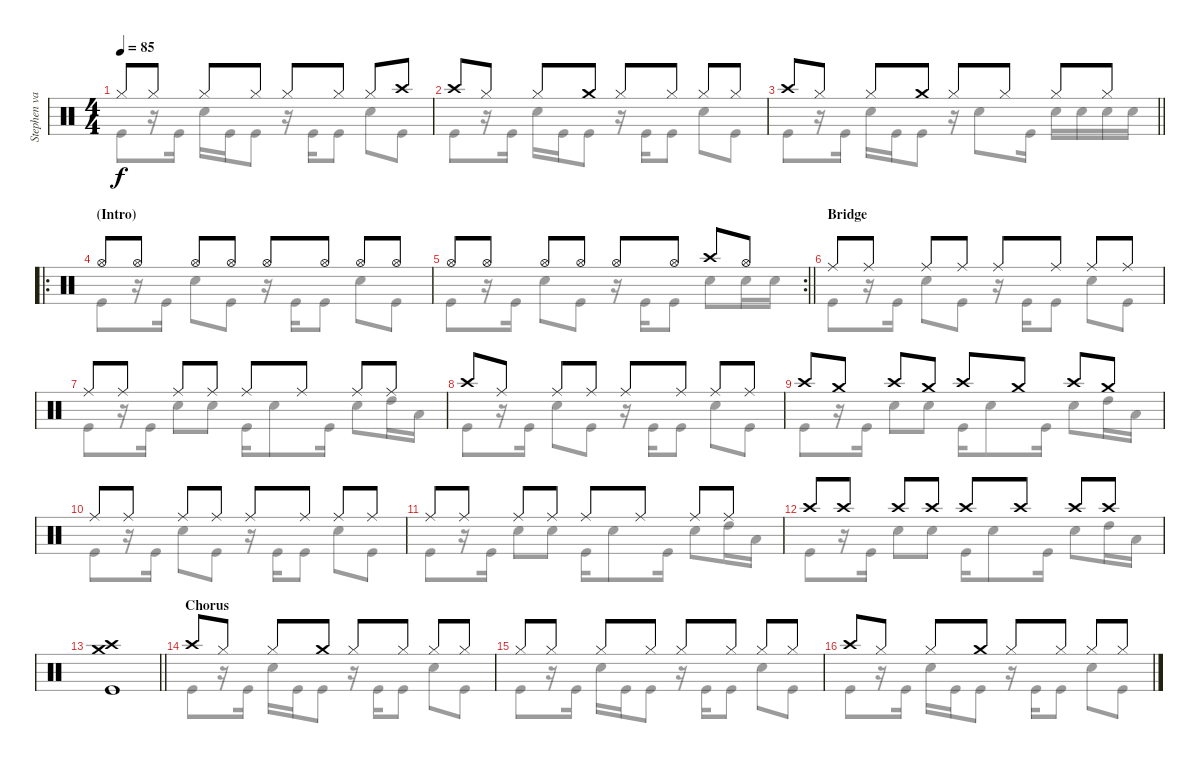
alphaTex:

\track ("Stephen van Haestregt - Drums" "Stephen va") {instrument percussion}
\staff {score}
\articulation defaults
\voice
\ts (4 4)
\tempo 85
\clef neutral
\ks c "Hi-Hat (closed)".8{dy f} "Hi-Hat (closed)".8 "Hi-Hat (closed)".8 "Hi-Hat (closed)".8 "Hi-Hat (closed)".8 "Hi-Hat (closed)".8 "Hi-Hat (closed)".8 "Crash high (hit)".8
|
"Crash high (hit)".8 "Hi-Hat (closed)".8 "Hi-Hat (closed)".8 "Crash medium (hit)".8 "Hi-Hat (closed)".8 "Hi-Hat (closed)".8 "Hi-Hat (closed)".8 "Hi-Hat (closed)".8 |
\barLineRight lightlight "Crash high (hit)".8 "Hi-Hat (closed)".8 "Hi-Hat (closed)".8 "Crash medium (hit)".8 "Hi-Hat (closed)".8 "Hi-Hat (closed)".8 "Hi-Hat (closed)".8 "Hi-Hat (closed)".8
|
\ro
\section ("" "(Intro)")
"Hi-Hat (open)".8 "Hi-Hat (open)".8 "Hi-Hat (open)".8 "Hi-Hat (open)".8 "Hi-Hat (open)".8 "Hi-Hat (open)".8 "Hi-Hat (open)".8 "Hi-Hat (open)".8 |
\rc 2
\barLineRight lightlight "Hi-Hat (open)".8 "Hi-Hat (open)".8 "Hi-Hat (open)".8 "Hi-Hat (open)".8 "Hi-Hat (open)".8 "Hi-Hat (open)".8 "Crash high (hit)".8 "Hi-Hat (open)".8
|
\section ("" "Bridge")
"Ride (middle)".8 "Ride (middle)".8 "Ride (middle)".8 "Ride (middle)".8 "Ride (middle)".8 "Ride (middle)".8 "Ride (middle)".8 "Ride (middle)".8 |
"Ride (middle)".8 "Ride (middle)".8 "Ride (middle)".8 "Ride (middle)".8 "Ride (middle)".8 "Ride (middle)".8 "Ride (middle)".8 "Ride (middle)".8 |
"Crash high (hit)".8 "Ride (middle)".8 "Ride (middle)".8 "Ride (middle)".8 "Ride (middle)".8 "Ride (middle)".8 "Ride (middle)".8 "Ride (middle)".8 |
"Crash high (hit)".8 "Crash medium (hit)".8 "Crash high (hit)".8 "Crash medium (hit)".8 "Crash high (hit)".8 "Crash medium (hit)".8 "Crash high (hit)".8 "Crash medium (hit)".8 |
"Ride (middle)".8 "Ride (middle)".8 "Ride (middle)".8 "Ride (middle)".8 "Ride (middle)".8 "Ride (middle)".8 "Ride (middle)".8 "Ride (middle)".8 |
"Ride (middle)".8 "Ride (middle)".8 "Ride (middle)".8 "Ride (middle)".8 "Ride (middle)".8 "Ride (middle)".8 "Ride (middle)".8 "Ride (middle)".8 |
"Crash high (hit)".8 "Crash high (hit)".8 "Crash high (hit)".8 "Crash high (hit)".8 "Crash high (hit)".8 "Crash high (hit)".8 "Crash high (hit)".8 "Crash high (hit)".8 |
\barLineRight lightlight
("Crash medium (hit)" "Crash high (hit)" "Kick (hit)").1 |
\section ("" "Chorus")
"Crash high (hit)".8 "Hi-Hat (closed)".8 "Hi-Hat (closed)".8 "Crash medium (hit)".8 "Hi-Hat (closed)".8 "Hi-Hat (closed)".8 "Hi-Hat (closed)".8 "Hi-Hat (closed)".8 |
"Hi-Hat (closed)".8 "Hi-Hat (closed)".8 "Hi-Hat (closed)".8 "Hi-Hat (closed)".8 "Hi-Hat (closed)".8 "Hi-Hat (closed)".8 "Hi-Hat (closed)".8 "Hi-Hat (closed)".8 |
"Crash high (hit)".8 "Hi-Hat (closed)".8 "Hi-Hat (closed)".8 "Crash medium (hit)".8 "Hi-Hat (closed)".8 "Hi-Hat (closed)".8 "Hi-Hat (closed)".8 "Hi-Hat (closed)".8
\voice
\clef neutral
\ottava regular
\simile none
\ks c "Kick (hit)".8{dy f}
r.16 "Kick (hit)".16 "Snare (hit) 2".16 "Kick (hit)".16 "Kick (hit)".8 r.16 "Kick (hit)".16 "Kick (hit)".8 "Snare (hit) 2".8 "Kick (hit)".8 |
"Kick (hit)".8 r.16 "Kick (hit)".16 "Snare (hit) 2".16 "Kick (hit)".16 "Kick (hit)".8 r.16 "Kick (hit)".16 "Kick (hit)".8 "Snare (hit) 2".8 "Kick (hit)".8 |
\barLineRight lightlight "Kick (hit)".8
r.16 "Kick (hit)".16 "Snare (hit) 2".16 "Kick (hit)".16 "Kick (hit)".8 r.16 "Snare (hit) 2".8 "Kick (hit)".16 "Snare (hit) 2".16 "Snare (hit) 2".16 "Snare (hit) 2".16 "Snare (hit) 2".16 |
"Kick (hit)".8 r.16 "Kick (hit)".16 "Snare (hit) 2".8 "Kick (hit)".8 r.16 "Kick (hit)".16 "Kick (hit)".8 "Snare (hit) 2".8 "Kick (hit)".8 |
\barLineRight lightlight "Kick (hit)".8
r.16 "Kick (hit)".16 "Snare (hit) 2".8 "Kick (hit)".8 r.16 "Kick (hit)".16 "Kick (hit)".8 "Snare (hit) 2".8 "Snare (hit) 2".16 "Snare (hit) 2".16 |
"Kick (hit)".8 r.16 "Kick (hit)".16 "Snare (hit) 2".8 "Kick (hit)".8 r.16 "Kick (hit)".16 "Kick (hit)".8 "Snare (hit) 2".8 "Kick (hit)".8 |
"Kick (hit)".8 r.16 "Kick (hit)".16 "Snare (hit) 2".8 "Snare (hit) 2".8 "Kick (hit)".16 "Snare (hit) 2".8 "Kick (hit)".16 "Snare (hit) 2".8 "High Tom (hit)".16 "Low Tom (hit)".16 |
"Kick (hit)".8 r.16 "Kick (hit)".16 "Snare (hit) 2".8 "Kick (hit)".8 r.16 "Kick (hit)".16 "Kick (hit)".8 "Snare (hit) 2".8 "Kick (hit)".8 |
"Kick (hit)".8 r.16 "Kick (hit)".16 "Snare (hit) 2".8 "Snare (hit) 2".8 "Kick (hit)".16 "Snare (hit) 2".8 "Kick (hit)".16 "Snare (hit) 2".8 "High Tom (hit)".16 "Low Tom (hit)".16 |
"Kick (hit)".8 r.16 "Kick (hit)".16 "Snare (hit) 2".8 "Kick (hit)".8 r.16 "Kick (hit)".16 "Kick (hit)".8 "Snare (hit) 2".8 "Kick (hit)".8 |
"Kick (hit)".8 r.16 "Kick (hit)".16 "Snare (hit) 2".8 "Snare (hit) 2".8 "Kick (hit)".16 "Snare (hit) 2".8 "Kick (hit)".16 "Snare (hit) 2".8 "High Tom (hit)".16 "Low Tom (hit)".16 |
"Kick (hit)".8 r.16 "Kick (hit)".16 "Snare (hit) 2".8 "Snare (hit) 2".8 "Kick (hit)".16 "Snare (hit) 2".8 "Kick (hit)".16 "Snare (hit) 2".8 "High Tom (hit)".16 "Low Tom (hit)".16 |
\barLineRight lightlight
|
"Kick (hit)".8 r.16 "Kick (hit)".16 "Snare (hit) 2".16 "Kick (hit)".16 "Kick (hit)".8 r.16 "Kick (hit)".16 "Kick (hit)".8 "Snare (hit) 2".8 "Kick (hit)".8 |
"Kick (hit)".8 r.16 "Kick (hit)".16 "Snare (hit) 2".16 "Kick (hit)".16 "Kick (hit)".8 r.16 "Kick (hit)".16 "Kick (hit)".8 "Snare (hit) 2".8 "Kick (hit)".8 |
"Kick (hit)".8 r.16 "Kick (hit)".16 "Snare (hit) 2".16 "Kick (hit)".16 "Kick (hit)".8 r.16 "Kick (hit)".16 "Kick (hit)".8 "Snare (hit) 2".8 "Kick (hit)".8
